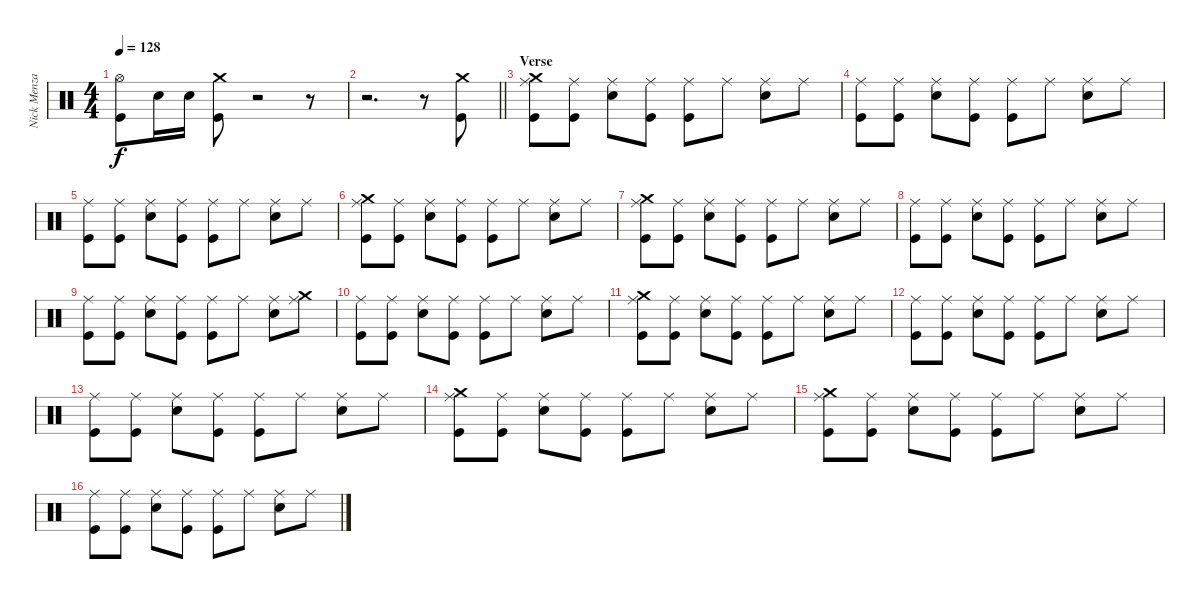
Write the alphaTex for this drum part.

\track ("Nick Menza" "Nick Menza") {instrument percussion}
\staff {score}
\articulation defaults
\ts (4 4)
\tempo 128
\clef neutral
\ks c
("Kick (hit)" "Hi-Hat (open)").8{dy f} "Electric Snare (hit)".16 "Electric Snare (hit)".16 ("Crash medium (hit)" "Kick (hit)").8 r.2 r.8 |
\barLineRight lightlight
r.2{d} r.8 ("Kick (hit)" "Crash medium (hit)").8 |
\section ("" "Verse")
("Ride (middle)" "Crash medium (hit)" "Kick (hit)").8 ("Ride (middle)" "Kick (hit)").8 ("Ride (middle)" "Electric Snare (hit)").8 ("Ride (middle)" "Kick (hit)").8 ("Kick (hit)" "Ride (middle)").8 "Ride (middle)".8 ("Ride (middle)" "Electric Snare (hit)").8 "Ride (middle)".8 |
("Ride (middle)" "Kick (hit)").8 ("Ride (middle)" "Kick (hit)").8 ("Ride (middle)" "Electric Snare (hit)").8 ("Ride (middle)" "Kick (hit)").8 ("Kick (hit)" "Ride (middle)").8 "Ride (middle)".8 ("Ride (middle)" "Electric Snare (hit)").8 "Ride (middle)".8 |
("Ride (middle)" "Kick (hit)").8 ("Ride (middle)" "Kick (hit)").8 ("Ride (middle)" "Electric Snare (hit)").8 ("Ride (middle)" "Kick (hit)").8 ("Kick (hit)" "Ride (middle)").8 "Ride (middle)".8 ("Ride (middle)" "Electric Snare (hit)").8 "Ride (middle)".8 |
("Crash medium (hit)" "Ride (middle)" "Kick (hit)").8 ("Ride (middle)" "Kick (hit)").8 ("Ride (middle)" "Electric Snare (hit)").8 ("Ride (middle)" "Kick (hit)").8 ("Kick (hit)" "Ride (middle)").8 "Ride (middle)".8 ("Ride (middle)" "Electric Snare (hit)").8 "Ride (middle)".8 |
("Crash medium (hit)" "Ride (middle)" "Kick (hit)").8 ("Ride (middle)" "Kick (hit)").8 ("Ride (middle)" "Electric Snare (hit)").8 ("Ride (middle)" "Kick (hit)").8 ("Kick (hit)" "Ride (middle)").8 "Ride (middle)".8 ("Ride (middle)" "Electric Snare (hit)").8 "Ride (middle)".8 |
("Ride (middle)" "Kick (hit)").8 ("Ride (middle)" "Kick (hit)").8 ("Ride (middle)" "Electric Snare (hit)").8 ("Ride (middle)" "Kick (hit)").8 ("Kick (hit)" "Ride (middle)").8 "Ride (middle)".8 ("Ride (middle)" "Electric Snare (hit)").8 "Ride (middle)".8 |
("Ride (middle)" "Kick (hit)").8 ("Ride (middle)" "Kick (hit)").8 ("Ride (middle)" "Electric Snare (hit)").8 ("Ride (middle)" "Kick (hit)").8 ("Kick (hit)" "Ride (middle)").8 "Ride (middle)".8 ("Ride (middle)" "Electric Snare (hit)").8 ("Crash medium (hit)" "Ride (middle)").8 |
("Ride (middle)" "Kick (hit)").8 ("Ride (middle)" "Kick (hit)").8 ("Ride (middle)" "Electric Snare (hit)").8 ("Ride (middle)" "Kick (hit)").8 ("Kick (hit)" "Ride (middle)").8 "Ride (middle)".8 ("Ride (middle)" "Electric Snare (hit)").8 "Ride (middle)".8 |
("Ride (middle)" "Crash medium (hit)" "Kick (hit)").8 ("Ride (middle)" "Kick (hit)").8 ("Ride (middle)" "Electric Snare (hit)").8 ("Ride (middle)" "Kick (hit)").8 ("Kick (hit)" "Ride (middle)").8 "Ride (middle)".8 ("Ride (middle)" "Electric Snare (hit)").8 "Ride (middle)".8 |
("Ride (middle)" "Kick (hit)").8 ("Ride (middle)" "Kick (hit)").8 ("Ride (middle)" "Electric Snare (hit)").8 ("Ride (middle)" "Kick (hit)").8 ("Kick (hit)" "Ride (middle)").8 "Ride (middle)".8 ("Ride (middle)" "Electric Snare (hit)").8 "Ride (middle)".8 |
("Ride (middle)" "Kick (hit)").8 ("Ride (middle)" "Kick (hit)").8 ("Ride (middle)" "Electric Snare (hit)").8 ("Ride (middle)" "Kick (hit)").8 ("Kick (hit)" "Ride (middle)").8 "Ride (middle)".8 ("Ride (middle)" "Electric Snare (hit)").8 "Ride (middle)".8 |
("Crash medium (hit)" "Ride (middle)" "Kick (hit)").8 ("Ride (middle)" "Kick (hit)").8 ("Ride (middle)" "Electric Snare (hit)").8 ("Ride (middle)" "Kick (hit)").8 ("Kick (hit)" "Ride (middle)").8 "Ride (middle)".8 ("Ride (middle)" "Electric Snare (hit)").8 "Ride (middle)".8 |
("Crash medium (hit)" "Ride (middle)" "Kick (hit)").8 ("Ride (middle)" "Kick (hit)").8 ("Ride (middle)" "Electric Snare (hit)").8 ("Ride (middle)" "Kick (hit)").8 ("Kick (hit)" "Ride (middle)").8 "Ride (middle)".8 ("Ride (middle)" "Electric Snare (hit)").8 "Ride (middle)".8 |
("Ride (middle)" "Kick (hit)").8 ("Ride (middle)" "Kick (hit)").8 ("Ride (middle)" "Electric Snare (hit)").8 ("Ride (middle)" "Kick (hit)").8 ("Kick (hit)" "Ride (middle)").8 "Ride (middle)".8 ("Ride (middle)" "Electric Snare (hit)").8 "Ride (middle)".8
